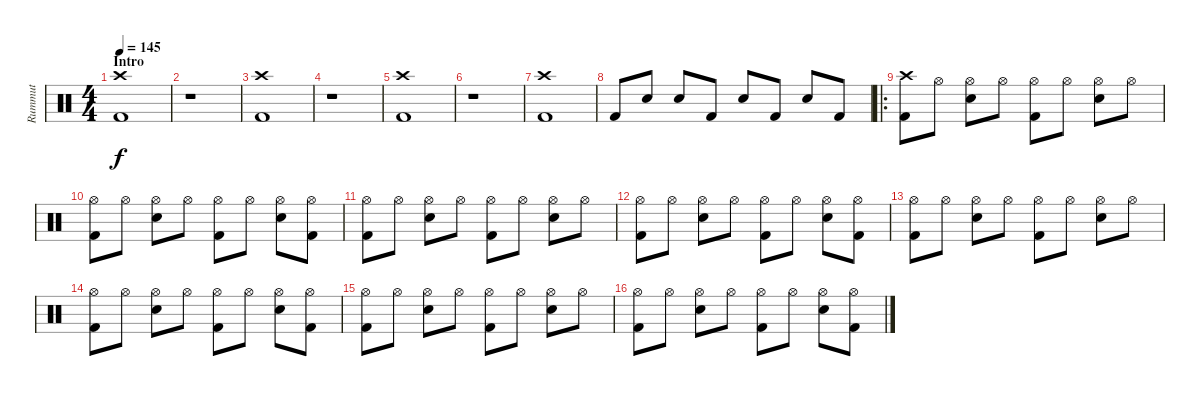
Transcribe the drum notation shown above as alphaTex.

\track ("Rummut" "Rummut") {instrument percussion}
\staff {score}
\articulation defaults
\ts (4 4)
\section ("" "Intro")
\tempo 145
\clef neutral
\ks c
("Crash high (hit)" "Kick (hit) 2").1{dy f} |
r.1 |
("Crash high (hit)" "Kick (hit) 2").1 |
r.1 |
("Crash high (hit)" "Kick (hit) 2").1 |
r.1 |
("Crash high (hit)" "Kick (hit) 2").1 |
"Kick (hit) 2".8 "Snare (hit) 2".8 "Snare (hit) 2".8 "Kick (hit) 2".8 "Snare (hit) 2".8 "Kick (hit) 2".8 "Snare (hit) 2".8 "Kick (hit) 2".8 |
\ro
("Crash high (hit)" "Kick (hit) 2").8 "Hi-Hat (open)".8 ("Hi-Hat (open)" "Snare (hit) 2").8 "Hi-Hat (open)".8 ("Hi-Hat (open)" "Kick (hit) 2").8 "Hi-Hat (open)".8 ("Hi-Hat (open)" "Snare (hit) 2").8 "Hi-Hat (open)".8 |
("Hi-Hat (open)" "Kick (hit) 2").8 "Hi-Hat (open)".8 ("Hi-Hat (open)" "Snare (hit) 2").8 "Hi-Hat (open)".8 ("Hi-Hat (open)" "Kick (hit) 2").8 "Hi-Hat (open)".8 ("Hi-Hat (open)" "Snare (hit) 2").8 ("Hi-Hat (open)" "Kick (hit) 2").8 |
("Hi-Hat (open)" "Kick (hit) 2").8 "Hi-Hat (open)".8 ("Hi-Hat (open)" "Snare (hit) 2").8 "Hi-Hat (open)".8 ("Hi-Hat (open)" "Kick (hit) 2").8 "Hi-Hat (open)".8 ("Hi-Hat (open)" "Snare (hit) 2").8 "Hi-Hat (open)".8 |
("Hi-Hat (open)" "Kick (hit) 2").8 "Hi-Hat (open)".8 ("Hi-Hat (open)" "Snare (hit) 2").8 "Hi-Hat (open)".8 ("Hi-Hat (open)" "Kick (hit) 2").8 "Hi-Hat (open)".8 ("Hi-Hat (open)" "Snare (hit) 2").8 ("Hi-Hat (open)" "Kick (hit) 2").8 |
("Hi-Hat (open)" "Kick (hit) 2").8 "Hi-Hat (open)".8 ("Hi-Hat (open)" "Snare (hit) 2").8 "Hi-Hat (open)".8 ("Hi-Hat (open)" "Kick (hit) 2").8 "Hi-Hat (open)".8 ("Hi-Hat (open)" "Snare (hit) 2").8 "Hi-Hat (open)".8 |
("Hi-Hat (open)" "Kick (hit) 2").8 "Hi-Hat (open)".8 ("Hi-Hat (open)" "Snare (hit) 2").8 "Hi-Hat (open)".8 ("Hi-Hat (open)" "Kick (hit) 2").8 "Hi-Hat (open)".8 ("Hi-Hat (open)" "Snare (hit) 2").8 ("Hi-Hat (open)" "Kick (hit) 2").8 |
("Hi-Hat (open)" "Kick (hit) 2").8 "Hi-Hat (open)".8 ("Hi-Hat (open)" "Snare (hit) 2").8 "Hi-Hat (open)".8 ("Hi-Hat (open)" "Kick (hit) 2").8 "Hi-Hat (open)".8 ("Hi-Hat (open)" "Snare (hit) 2").8 "Hi-Hat (open)".8 |
("Hi-Hat (open)" "Kick (hit) 2").8 "Hi-Hat (open)".8 ("Hi-Hat (open)" "Snare (hit) 2").8 "Hi-Hat (open)".8 ("Hi-Hat (open)" "Kick (hit) 2").8 "Hi-Hat (open)".8 ("Hi-Hat (open)" "Snare (hit) 2").8 ("Hi-Hat (open)" "Kick (hit) 2").8
